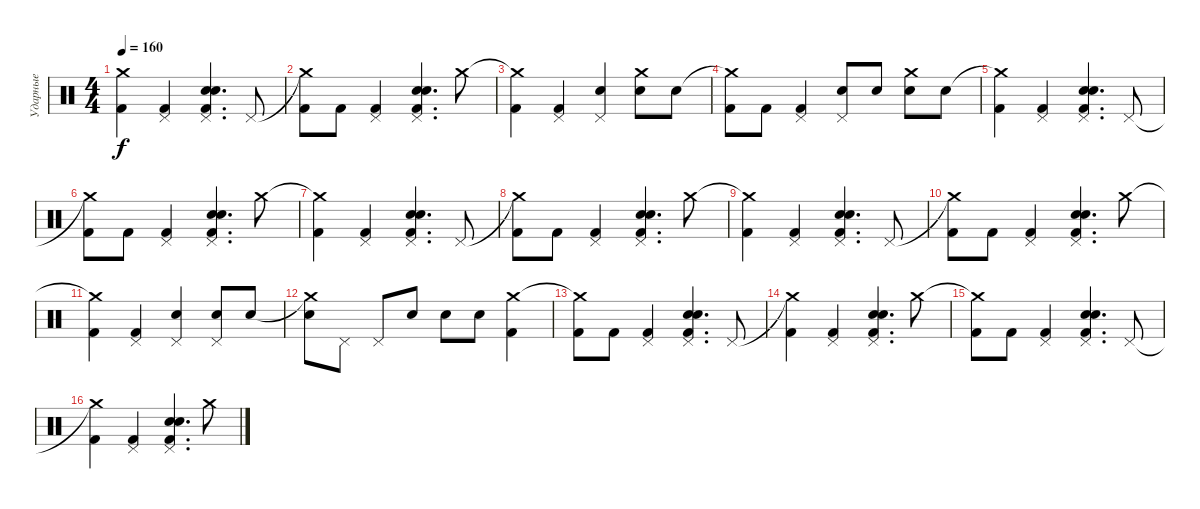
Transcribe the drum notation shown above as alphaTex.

\track ("Ударные" "Ударные") {instrument percussion}
\staff {score}
\articulation defaults
\ts (4 4)
\tempo 160
\clef neutral
\ks c
("Crash medium (hit)"{t} "Kick (hit) 2").4{dy f} ("Pedal Hi-Hat (hit)" "Kick (hit) 2").4 ("Pedal Hi-Hat (hit)" "Snare (hit) 2" "Electric Snare (hit)" "Kick (hit) 2").4{d} "Pedal Hi-Hat (hit)".8 |
("Crash medium (hit)"{t} "Kick (hit) 2").8 "Kick (hit) 2".8 ("Pedal Hi-Hat (hit)" "Kick (hit) 2").4 ("Pedal Hi-Hat (hit)" "Snare (hit) 2" "Electric Snare (hit)" "Kick (hit) 2").4{d} "Crash medium (hit)".8 |
("Crash medium (hit)"{t} "Kick (hit) 2").4 ("Pedal Hi-Hat (hit)" "Kick (hit) 2").4 ("Pedal Hi-Hat (hit)" "Snare (hit) 2").4 ("Crash medium (hit)" "Snare (hit) 2").8 "Electric Snare (hit)".8 |
("Crash medium (hit)"{t} "Kick (hit) 2").8 "Kick (hit) 2".8 ("Pedal Hi-Hat (hit)" "Kick (hit) 2").4 ("Pedal Hi-Hat (hit)" "Snare (hit) 2").8 "Electric Snare (hit)".8 ("Crash medium (hit)" "Snare (hit) 2").8 "Electric Snare (hit)".8 |
("Crash medium (hit)"{t} "Kick (hit) 2").4 ("Pedal Hi-Hat (hit)" "Kick (hit) 2").4 ("Pedal Hi-Hat (hit)" "Snare (hit) 2" "Electric Snare (hit)" "Kick (hit) 2").4{d} "Pedal Hi-Hat (hit)".8 |
("Crash medium (hit)"{t} "Kick (hit) 2").8 "Kick (hit) 2".8 ("Pedal Hi-Hat (hit)" "Kick (hit) 2").4 ("Pedal Hi-Hat (hit)" "Snare (hit) 2" "Electric Snare (hit)" "Kick (hit) 2").4{d} "Crash medium (hit)".8 |
("Crash medium (hit)"{t} "Kick (hit) 2").4 ("Pedal Hi-Hat (hit)" "Kick (hit) 2").4 ("Pedal Hi-Hat (hit)" "Snare (hit) 2" "Electric Snare (hit)" "Kick (hit) 2").4{d} "Pedal Hi-Hat (hit)".8 |
("Crash medium (hit)"{t} "Kick (hit) 2").8 "Kick (hit) 2".8 ("Pedal Hi-Hat (hit)" "Kick (hit) 2").4 ("Pedal Hi-Hat (hit)" "Snare (hit) 2" "Electric Snare (hit)" "Kick (hit) 2").4{d} "Crash medium (hit)".8 |
("Crash medium (hit)"{t} "Kick (hit) 2").4 ("Pedal Hi-Hat (hit)" "Kick (hit) 2").4 ("Pedal Hi-Hat (hit)" "Snare (hit) 2" "Electric Snare (hit)" "Kick (hit) 2").4{d} "Pedal Hi-Hat (hit)".8 |
("Crash medium (hit)"{t} "Kick (hit) 2").8 "Kick (hit) 2".8 ("Pedal Hi-Hat (hit)" "Kick (hit) 2").4 ("Pedal Hi-Hat (hit)" "Snare (hit) 2" "Electric Snare (hit)" "Kick (hit) 2").4{d} "Crash medium (hit)".8 |
("Crash medium (hit)"{t} "Kick (hit) 2").4 ("Pedal Hi-Hat (hit)" "Kick (hit) 2").4 ("Pedal Hi-Hat (hit)" "Snare (hit) 2").4 ("Pedal Hi-Hat (hit)" "Snare (hit) 2").8 "Electric Snare (hit)".8 |
("Crash medium (hit)"{t} "Snare (hit) 2").8 "Pedal Hi-Hat (hit)".8 "Pedal Hi-Hat (hit)".8 "Snare (hit) 2".8 "Electric Snare (hit)".8 "Electric Snare (hit)".8 ("Crash medium (hit)" "Kick (hit) 2").4 |
("Crash medium (hit)"{t} "Kick (hit) 2").8 "Kick (hit) 2".8 ("Pedal Hi-Hat (hit)" "Kick (hit) 2").4 ("Pedal Hi-Hat (hit)" "Snare (hit) 2" "Electric Snare (hit)" "Kick (hit) 2").4{d} "Pedal Hi-Hat (hit)".8 |
("Crash medium (hit)"{t} "Kick (hit) 2").4 ("Pedal Hi-Hat (hit)" "Kick (hit) 2").4 ("Pedal Hi-Hat (hit)" "Snare (hit) 2" "Electric Snare (hit)" "Kick (hit) 2").4{d} "Crash medium (hit)".8 |
("Crash medium (hit)"{t} "Kick (hit) 2").8 "Kick (hit) 2".8 ("Pedal Hi-Hat (hit)" "Kick (hit) 2").4 ("Pedal Hi-Hat (hit)" "Snare (hit) 2" "Electric Snare (hit)" "Kick (hit) 2").4{d} "Pedal Hi-Hat (hit)".8 |
("Crash medium (hit)"{t} "Kick (hit) 2").4 ("Pedal Hi-Hat (hit)" "Kick (hit) 2").4 ("Pedal Hi-Hat (hit)" "Snare (hit) 2" "Electric Snare (hit)" "Kick (hit) 2").4{d} "Crash medium (hit)".8
